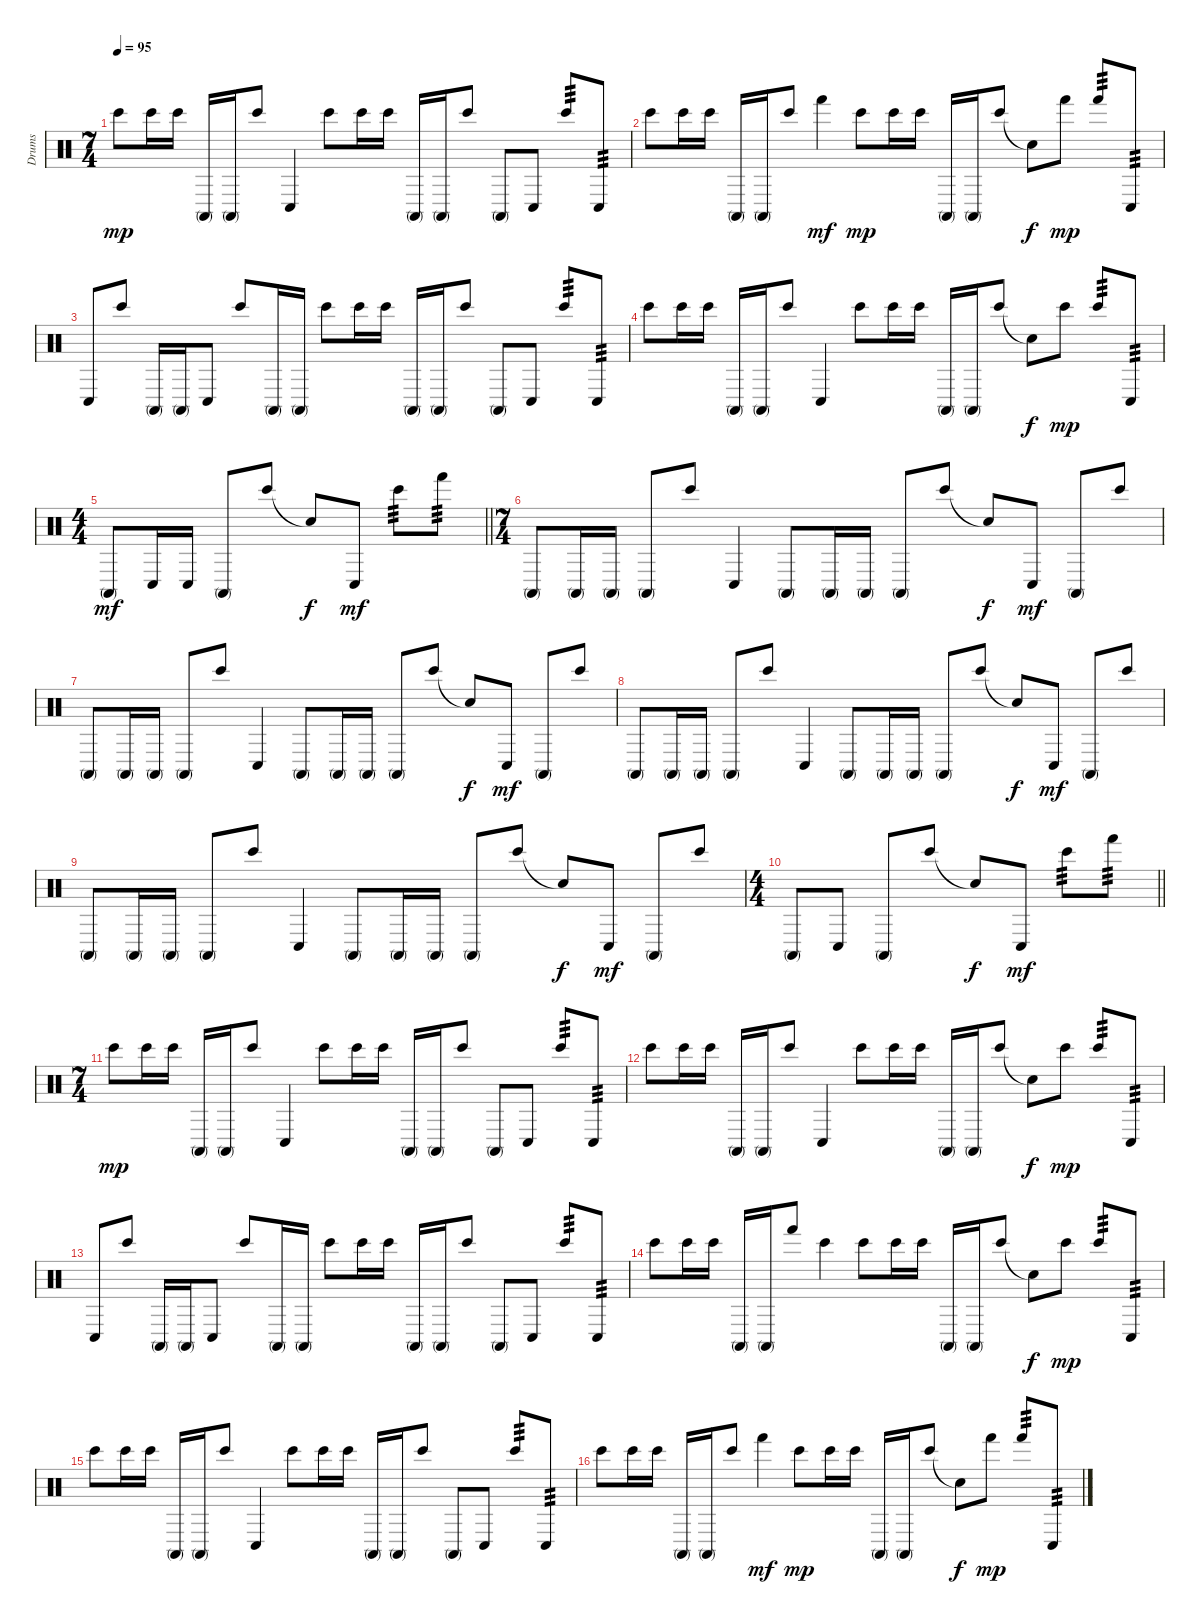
\track ("Drums" "Drums") {instrument percussion}
\staff {score}
\articulation defaults
\ts (7 4)
\tempo 95
\clef neutral
\ks c "Bongo High (hit)".8{dy mp} "Bongo High (hit)".16 "Bongo High (hit)".16 "Conga high (mute)".16 "Conga high (mute)".16 "Bongo High (hit)".8 "Conga low (hit)".4 "Bongo High (hit)".8 "Bongo High (hit)".16 "Bongo High (hit)".16 "Conga high (mute)".16 "Conga high (mute)".16 "Bongo High (hit)".8 "Conga high (mute)".8 "Conga low (hit)".8 "Bongo High (hit)".8{tp 3} "Conga low (hit)".8{tp 3}
|
"Bongo High (hit)".8 "Bongo High (hit)".16 "Bongo High (hit)".16 "Conga high (mute)".16 "Conga high (mute)".16 "Bongo High (hit)".8 "Hand (hit)".4{dy mf} "Bongo High (hit)".8{dy mp} "Bongo High (hit)".16 "Bongo High (hit)".16 "Conga high (mute)".16 "Conga high (mute)".16 "Bongo High (hit)".8 "Snare (hit)"{t}.8{dy f} "Hand (hit)".8{dy mp} "Hand (hit)".8{tp 3} "Conga low (hit)".8{tp 3} |
"Conga low (hit)".8 "Bongo High (hit)".8 "Conga high (mute)".16 "Conga high (mute)".16 "Conga low (hit)".8 "Bongo High (hit)".8 "Conga high (mute)".16 "Conga high (mute)".16 "Bongo High (hit)".8 "Bongo High (hit)".16 "Bongo High (hit)".16 "Conga high (mute)".16 "Conga high (mute)".16 "Bongo High (hit)".8 "Conga high (mute)".8 "Conga low (hit)".8 "Bongo High (hit)".8{tp 3} "Conga low (hit)".8{tp 3} |
"Bongo High (hit)".8 "Bongo High (hit)".16 "Bongo High (hit)".16 "Conga high (mute)".16 "Conga high (mute)".16 "Bongo High (hit)".8 "Conga low (hit)".4 "Bongo High (hit)".8 "Bongo High (hit)".16 "Bongo High (hit)".16 "Conga high (mute)".16 "Conga high (mute)".16 "Bongo High (hit)".8 "Snare (hit)"{t}.8{dy f} "Bongo High (hit)".8{dy mp} "Bongo High (hit)".8{tp 3} "Conga low (hit)".8{tp 3} |
\ts (4 4)
\barLineRight lightlight "Conga high (mute)".8{dy mf} "Conga low (hit)".16 "Conga low (hit)".16 "Conga high (mute)".8 "Bongo High (hit)".8 "Snare (hit)"{t}.8{dy f} "Conga low (hit)".8{dy mf} "Bongo High (hit)".8{tp 3} "Hand (hit)".8{tp 3}
|
\ts (7 4)
\section ("" "")
"Conga high (mute)".8 "Conga high (mute)".16 "Conga high (mute)".16 "Conga high (mute)".8 "Bongo High (hit)".8 "Conga low (hit)".4 "Conga high (mute)".8 "Conga high (mute)".16 "Conga high (mute)".16 "Conga high (mute)".8 "Bongo High (hit)".8 "Snare (hit)"{t}.8{dy f} "Conga low (hit)".8{dy mf} "Conga high (mute)".8 "Bongo High (hit)".8 |
"Conga high (mute)".8 "Conga high (mute)".16 "Conga high (mute)".16 "Conga high (mute)".8 "Bongo High (hit)".8 "Conga low (hit)".4 "Conga high (mute)".8 "Conga high (mute)".16 "Conga high (mute)".16 "Conga high (mute)".8 "Bongo High (hit)".8 "Snare (hit)"{t}.8{dy f} "Conga low (hit)".8{dy mf} "Conga high (mute)".8 "Bongo High (hit)".8 |
"Conga high (mute)".8 "Conga high (mute)".16 "Conga high (mute)".16 "Conga high (mute)".8 "Bongo High (hit)".8 "Conga low (hit)".4 "Conga high (mute)".8 "Conga high (mute)".16 "Conga high (mute)".16 "Conga high (mute)".8 "Bongo High (hit)".8 "Snare (hit)"{t}.8{dy f} "Conga low (hit)".8{dy mf} "Conga high (mute)".8 "Bongo High (hit)".8 |
"Conga high (mute)".8 "Conga high (mute)".16 "Conga high (mute)".16 "Conga high (mute)".8 "Bongo High (hit)".8 "Conga low (hit)".4 "Conga high (mute)".8 "Conga high (mute)".16 "Conga high (mute)".16 "Conga high (mute)".8 "Bongo High (hit)".8 "Snare (hit)"{t}.8{dy f} "Conga low (hit)".8{dy mf} "Conga high (mute)".8 "Bongo High (hit)".8 |
\ts (4 4)
\barLineRight lightlight "Conga high (mute)".8 "Conga low (hit)".8 "Conga high (mute)".8 "Bongo High (hit)".8 "Snare (hit)"{t}.8{dy f} "Conga low (hit)".8{dy mf} "Bongo High (hit)".8{tp 3} "Hand (hit)".8{tp 3}
|
\ts (7 4)
\section ("" "")
"Bongo High (hit)".8{dy mp} "Bongo High (hit)".16 "Bongo High (hit)".16 "Conga high (mute)".16 "Conga high (mute)".16 "Bongo High (hit)".8 "Conga low (hit)".4 "Bongo High (hit)".8 "Bongo High (hit)".16 "Bongo High (hit)".16 "Conga high (mute)".16 "Conga high (mute)".16 "Bongo High (hit)".8 "Conga high (mute)".8 "Conga low (hit)".8 "Bongo High (hit)".8{tp 3} "Conga low (hit)".8{tp 3} |
"Bongo High (hit)".8 "Bongo High (hit)".16 "Bongo High (hit)".16 "Conga high (mute)".16 "Conga high (mute)".16 "Bongo High (hit)".8 "Conga low (hit)".4 "Bongo High (hit)".8 "Bongo High (hit)".16 "Bongo High (hit)".16 "Conga high (mute)".16 "Conga high (mute)".16 "Bongo High (hit)".8 "Snare (hit)"{t}.8{dy f} "Bongo High (hit)".8{dy mp} "Bongo High (hit)".8{tp 3} "Conga low (hit)".8{tp 3} |
"Conga low (hit)".8 "Bongo High (hit)".8 "Conga high (mute)".16 "Conga high (mute)".16 "Conga low (hit)".8 "Bongo High (hit)".8 "Conga high (mute)".16 "Conga high (mute)".16 "Bongo High (hit)".8 "Bongo High (hit)".16 "Bongo High (hit)".16 "Conga high (mute)".16 "Conga high (mute)".16 "Bongo High (hit)".8 "Conga high (mute)".8 "Conga low (hit)".8 "Bongo High (hit)".8{tp 3} "Conga low (hit)".8{tp 3} |
"Bongo High (hit)".8 "Bongo High (hit)".16 "Bongo High (hit)".16 "Conga high (mute)".16 "Conga high (mute)".16 "Hand (hit)".8 "Bongo High (hit)".4 "Bongo High (hit)".8 "Bongo High (hit)".16 "Bongo High (hit)".16 "Conga high (mute)".16 "Conga high (mute)".16 "Bongo High (hit)".8 "Snare (hit)"{t}.8{dy f} "Bongo High (hit)".8{dy mp} "Bongo High (hit)".8{tp 3} "Conga low (hit)".8{tp 3} |
"Bongo High (hit)".8 "Bongo High (hit)".16 "Bongo High (hit)".16 "Conga high (mute)".16 "Conga high (mute)".16 "Bongo High (hit)".8 "Conga low (hit)".4 "Bongo High (hit)".8 "Bongo High (hit)".16 "Bongo High (hit)".16 "Conga high (mute)".16 "Conga high (mute)".16 "Bongo High (hit)".8 "Conga high (mute)".8 "Conga low (hit)".8 "Bongo High (hit)".8{tp 3} "Conga low (hit)".8{tp 3} |
"Bongo High (hit)".8 "Bongo High (hit)".16 "Bongo High (hit)".16 "Conga high (mute)".16 "Conga high (mute)".16 "Bongo High (hit)".8 "Hand (hit)".4{dy mf} "Bongo High (hit)".8{dy mp} "Bongo High (hit)".16 "Bongo High (hit)".16 "Conga high (mute)".16 "Conga high (mute)".16 "Bongo High (hit)".8 "Snare (hit)"{t}.8{dy f} "Hand (hit)".8{dy mp} "Hand (hit)".8{tp 3} "Conga low (hit)".8{tp 3}
